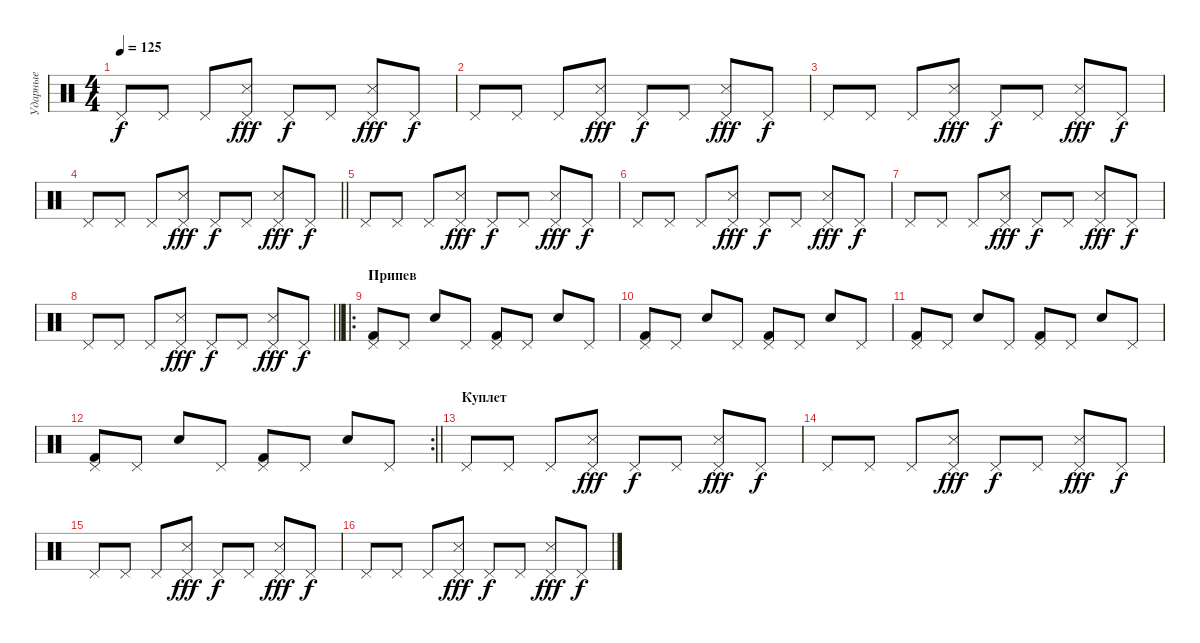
\track ("Ударные" "Ударные") {instrument percussion}
\staff {score}
\articulation defaults
\ts (4 4)
\tempo 125
\clef neutral
\ks c "Pedal Hi-Hat (hit)".8{dy f} "Pedal Hi-Hat (hit)".8 "Pedal Hi-Hat (hit)".8
("Pedal Hi-Hat (hit)" "Snare (side stick) 3").8{dy fff} "Pedal Hi-Hat (hit)".8{dy f} "Pedal Hi-Hat (hit)".8 ("Pedal Hi-Hat (hit)" "Snare (side stick) 3").8{dy fff} "Pedal Hi-Hat (hit)".8{dy f} |
"Pedal Hi-Hat (hit)".8 "Pedal Hi-Hat (hit)".8 "Pedal Hi-Hat (hit)".8 ("Pedal Hi-Hat (hit)" "Snare (side stick) 3").8{dy fff} "Pedal Hi-Hat (hit)".8{dy f} "Pedal Hi-Hat (hit)".8 ("Pedal Hi-Hat (hit)" "Snare (side stick) 3").8{dy fff} "Pedal Hi-Hat (hit)".8{dy f} |
"Pedal Hi-Hat (hit)".8 "Pedal Hi-Hat (hit)".8 "Pedal Hi-Hat (hit)".8 ("Pedal Hi-Hat (hit)" "Snare (side stick) 3").8{dy fff} "Pedal Hi-Hat (hit)".8{dy f} "Pedal Hi-Hat (hit)".8 ("Pedal Hi-Hat (hit)" "Snare (side stick) 3").8{dy fff} "Pedal Hi-Hat (hit)".8{dy f} |
\barLineRight lightlight "Pedal Hi-Hat (hit)".8 "Pedal Hi-Hat (hit)".8 "Pedal Hi-Hat (hit)".8
("Pedal Hi-Hat (hit)" "Snare (side stick) 3").8{dy fff} "Pedal Hi-Hat (hit)".8{dy f} "Pedal Hi-Hat (hit)".8 ("Pedal Hi-Hat (hit)" "Snare (side stick) 3").8{dy fff} "Pedal Hi-Hat (hit)".8{dy f} |
"Pedal Hi-Hat (hit)".8 "Pedal Hi-Hat (hit)".8 "Pedal Hi-Hat (hit)".8 ("Pedal Hi-Hat (hit)" "Snare (side stick) 3").8{dy fff} "Pedal Hi-Hat (hit)".8{dy f} "Pedal Hi-Hat (hit)".8 ("Pedal Hi-Hat (hit)" "Snare (side stick) 3").8{dy fff} "Pedal Hi-Hat (hit)".8{dy f} |
"Pedal Hi-Hat (hit)".8 "Pedal Hi-Hat (hit)".8 "Pedal Hi-Hat (hit)".8 ("Pedal Hi-Hat (hit)" "Snare (side stick) 3").8{dy fff} "Pedal Hi-Hat (hit)".8{dy f} "Pedal Hi-Hat (hit)".8 ("Pedal Hi-Hat (hit)" "Snare (side stick) 3").8{dy fff} "Pedal Hi-Hat (hit)".8{dy f} |
"Pedal Hi-Hat (hit)".8 "Pedal Hi-Hat (hit)".8 "Pedal Hi-Hat (hit)".8 ("Pedal Hi-Hat (hit)" "Snare (side stick) 3").8{dy fff} "Pedal Hi-Hat (hit)".8{dy f} "Pedal Hi-Hat (hit)".8 ("Pedal Hi-Hat (hit)" "Snare (side stick) 3").8{dy fff} "Pedal Hi-Hat (hit)".8{dy f} |
\barLineRight lightlight "Pedal Hi-Hat (hit)".8 "Pedal Hi-Hat (hit)".8 "Pedal Hi-Hat (hit)".8
("Pedal Hi-Hat (hit)" "Snare (side stick) 3").8{dy fff} "Pedal Hi-Hat (hit)".8{dy f} "Pedal Hi-Hat (hit)".8 ("Pedal Hi-Hat (hit)" "Snare (side stick) 3").8{dy fff} "Pedal Hi-Hat (hit)".8{dy f} |
\ro
\section ("" "Припев")
("Pedal Hi-Hat (hit)" "Kick (hit) 2").8 "Pedal Hi-Hat (hit)".8 "Electric Snare (hit)".8 "Pedal Hi-Hat (hit)".8 ("Pedal Hi-Hat (hit)" "Kick (hit) 2").8 "Pedal Hi-Hat (hit)".8 "Electric Snare (hit)".8 "Pedal Hi-Hat (hit)".8 |
("Pedal Hi-Hat (hit)" "Kick (hit) 2").8 "Pedal Hi-Hat (hit)".8 "Electric Snare (hit)".8 "Pedal Hi-Hat (hit)".8 ("Pedal Hi-Hat (hit)" "Kick (hit) 2").8 "Pedal Hi-Hat (hit)".8 "Electric Snare (hit)".8 "Pedal Hi-Hat (hit)".8 |
("Pedal Hi-Hat (hit)" "Kick (hit) 2").8 "Pedal Hi-Hat (hit)".8 "Electric Snare (hit)".8 "Pedal Hi-Hat (hit)".8 ("Pedal Hi-Hat (hit)" "Kick (hit) 2").8 "Pedal Hi-Hat (hit)".8 "Electric Snare (hit)".8 "Pedal Hi-Hat (hit)".8 |
\rc 2
\barLineRight lightlight
("Pedal Hi-Hat (hit)" "Kick (hit) 2").8 "Pedal Hi-Hat (hit)".8 "Electric Snare (hit)".8 "Pedal Hi-Hat (hit)".8 ("Pedal Hi-Hat (hit)" "Kick (hit) 2").8 "Pedal Hi-Hat (hit)".8 "Electric Snare (hit)".8 "Pedal Hi-Hat (hit)".8 |
\section ("" "Куплет")
"Pedal Hi-Hat (hit)".8 "Pedal Hi-Hat (hit)".8 "Pedal Hi-Hat (hit)".8 ("Pedal Hi-Hat (hit)" "Snare (side stick) 3").8{dy fff} "Pedal Hi-Hat (hit)".8{dy f} "Pedal Hi-Hat (hit)".8 ("Pedal Hi-Hat (hit)" "Snare (side stick) 3").8{dy fff} "Pedal Hi-Hat (hit)".8{dy f} |
"Pedal Hi-Hat (hit)".8 "Pedal Hi-Hat (hit)".8 "Pedal Hi-Hat (hit)".8 ("Pedal Hi-Hat (hit)" "Snare (side stick) 3").8{dy fff} "Pedal Hi-Hat (hit)".8{dy f} "Pedal Hi-Hat (hit)".8 ("Pedal Hi-Hat (hit)" "Snare (side stick) 3").8{dy fff} "Pedal Hi-Hat (hit)".8{dy f} |
"Pedal Hi-Hat (hit)".8 "Pedal Hi-Hat (hit)".8 "Pedal Hi-Hat (hit)".8 ("Pedal Hi-Hat (hit)" "Snare (side stick) 3").8{dy fff} "Pedal Hi-Hat (hit)".8{dy f} "Pedal Hi-Hat (hit)".8 ("Pedal Hi-Hat (hit)" "Snare (side stick) 3").8{dy fff} "Pedal Hi-Hat (hit)".8{dy f} |
"Pedal Hi-Hat (hit)".8 "Pedal Hi-Hat (hit)".8 "Pedal Hi-Hat (hit)".8 ("Pedal Hi-Hat (hit)" "Snare (side stick) 3").8{dy fff} "Pedal Hi-Hat (hit)".8{dy f} "Pedal Hi-Hat (hit)".8 ("Pedal Hi-Hat (hit)" "Snare (side stick) 3").8{dy fff} "Pedal Hi-Hat (hit)".8{dy f}
